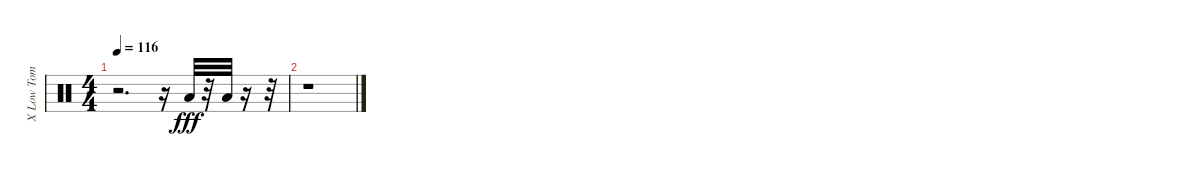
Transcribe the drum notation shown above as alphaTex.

\track ("X Low Tom           " "X Low Tom ") {instrument percussion}
\staff {score}
\articulation defaults
\ts (4 4)
\tempo 116
\clef neutral
\ks c
r.2{d dy fff} r.16 "Low Floor Tom (hit)".32 r.32 "Low Floor Tom (hit)".32 r.16 r.32 |
r.1
